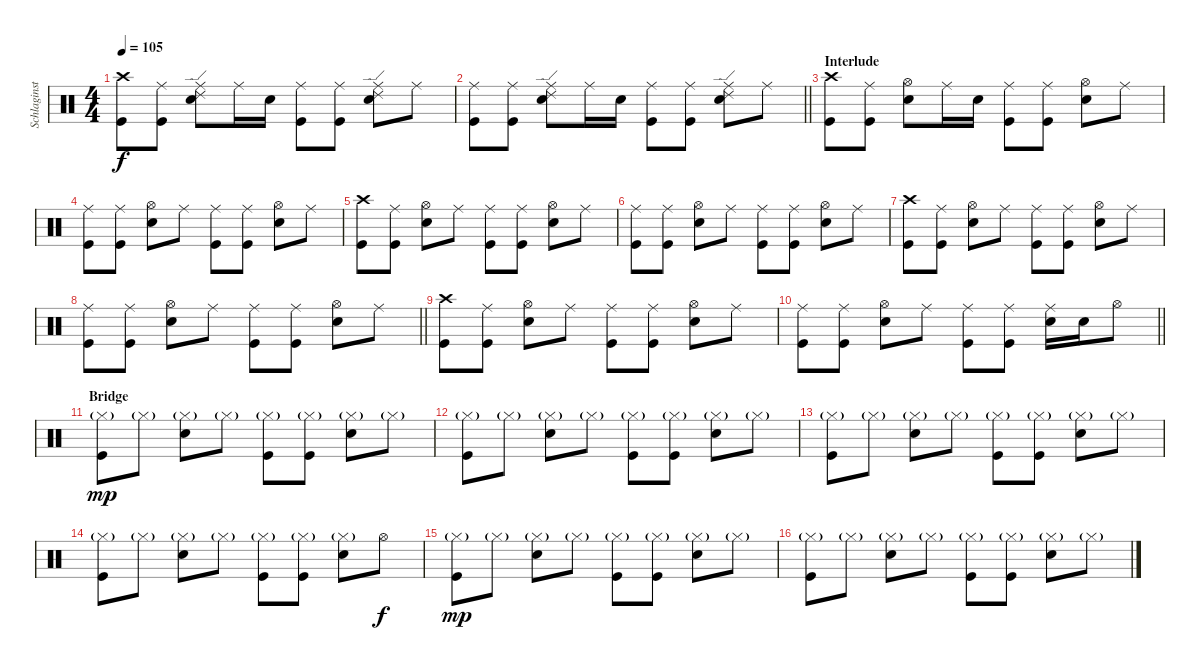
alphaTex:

\track ("Schlaginstrumente - Auswahl" "Schlaginst") {instrument percussion}
\staff {score}
\articulation defaults
\ts (4 4)
\tempo 105
\clef neutral
\ks c
("Crash high (hit)" "Kick (hit)").8{dy f} ("Ride (middle)" "Kick (hit)").8 ("Ride (middle)" "Ride (edge) 2" "Snare (hit) 2").8 "Ride (middle)".16 "Snare (hit) 2".16 ("Ride (middle)" "Kick (hit)").8 ("Ride (middle)" "Kick (hit)").8 ("Ride (middle)" "Ride (edge) 2" "Snare (hit) 2").8 "Ride (middle)".8 |
\barLineRight lightlight
("Ride (middle)" "Kick (hit)").8 ("Ride (middle)" "Kick (hit)").8 ("Ride (middle)" "Ride (edge) 2" "Snare (hit) 2").8 "Ride (middle)".16 "Snare (hit) 2".16 ("Ride (middle)" "Kick (hit)").8 ("Ride (middle)" "Kick (hit)").8 ("Ride (middle)" "Ride (edge) 2" "Snare (hit) 2").8 "Ride (middle)".8 |
\section ("" "Interlude")
("Crash high (hit)" "Kick (hit)").8 ("Ride (middle)" "Kick (hit)").8 ("Hi-Hat (open)" "Snare (hit) 2").8 "Ride (middle)".16 "Snare (hit) 2".16 ("Ride (middle)" "Kick (hit)").8 ("Ride (middle)" "Kick (hit)").8 ("Hi-Hat (open)" "Snare (hit) 2").8 "Ride (middle)".8 |
("Ride (middle)" "Kick (hit)").8 ("Ride (middle)" "Kick (hit)").8 ("Hi-Hat (open)" "Snare (hit) 2").8 "Ride (middle)".8 ("Ride (middle)" "Kick (hit)").8 ("Ride (middle)" "Kick (hit)").8 ("Hi-Hat (open)" "Snare (hit) 2").8 "Ride (middle)".8 |
("Crash high (hit)" "Kick (hit)").8 ("Ride (middle)" "Kick (hit)").8 ("Hi-Hat (open)" "Snare (hit) 2").8 "Ride (middle)".8 ("Ride (middle)" "Kick (hit)").8 ("Ride (middle)" "Kick (hit)").8 ("Hi-Hat (open)" "Snare (hit) 2").8 "Ride (middle)".8 |
("Ride (middle)" "Kick (hit)").8 ("Ride (middle)" "Kick (hit)").8 ("Hi-Hat (open)" "Snare (hit) 2").8 "Ride (middle)".8 ("Ride (middle)" "Kick (hit)").8 ("Ride (middle)" "Kick (hit)").8 ("Hi-Hat (open)" "Snare (hit) 2").8 "Ride (middle)".8 |
("Crash high (hit)" "Kick (hit)").8 ("Ride (middle)" "Kick (hit)").8 ("Hi-Hat (open)" "Snare (hit) 2").8 "Ride (middle)".8 ("Ride (middle)" "Kick (hit)").8 ("Ride (middle)" "Kick (hit)").8 ("Hi-Hat (open)" "Snare (hit) 2").8 "Ride (middle)".8 |
\barLineRight lightlight
("Ride (middle)" "Kick (hit)").8 ("Ride (middle)" "Kick (hit)").8 ("Hi-Hat (open)" "Snare (hit) 2").8 "Ride (middle)".8 ("Ride (middle)" "Kick (hit)").8 ("Ride (middle)" "Kick (hit)").8 ("Hi-Hat (open)" "Snare (hit) 2").8 "Ride (middle)".8 |
("Crash high (hit)" "Kick (hit)").8 ("Ride (middle)" "Kick (hit)").8 ("Hi-Hat (open)" "Snare (hit) 2").8 "Ride (middle)".8 ("Ride (middle)" "Kick (hit)").8 ("Ride (middle)" "Kick (hit)").8 ("Hi-Hat (open)" "Snare (hit) 2").8 "Ride (middle)".8 |
\barLineRight lightlight
("Ride (middle)" "Kick (hit)").8 ("Ride (middle)" "Kick (hit)").8 ("Hi-Hat (open)" "Snare (hit) 2").8 "Ride (middle)".8 ("Ride (middle)" "Kick (hit)").8 ("Ride (middle)" "Kick (hit)").8 ("Ride (middle)" "Snare (hit) 2").16 "Snare (hit) 2".16 "Hi-Hat (open)".8 |
\section ("" "Bridge")
("Hi-Hat (closed)"{g} "Kick (hit)").8{dy mp} "Hi-Hat (closed)"{g}.8 ("Hi-Hat (closed)"{g} "Snare (hit) 2").8 "Hi-Hat (closed)"{g}.8 ("Hi-Hat (closed)"{g} "Kick (hit)").8 ("Hi-Hat (closed)"{g} "Kick (hit)").8 ("Hi-Hat (closed)"{g} "Snare (hit) 2").8 "Hi-Hat (closed)"{g}.8 |
("Hi-Hat (closed)"{g} "Kick (hit)").8 "Hi-Hat (closed)"{g}.8 ("Hi-Hat (closed)"{g} "Snare (hit) 2").8 "Hi-Hat (closed)"{g}.8 ("Hi-Hat (closed)"{g} "Kick (hit)").8 ("Hi-Hat (closed)"{g} "Kick (hit)").8 ("Hi-Hat (closed)"{g} "Snare (hit) 2").8 "Hi-Hat (closed)"{g}.8 |
("Hi-Hat (closed)"{g} "Kick (hit)").8 "Hi-Hat (closed)"{g}.8 ("Hi-Hat (closed)"{g} "Snare (hit) 2").8 "Hi-Hat (closed)"{g}.8 ("Hi-Hat (closed)"{g} "Kick (hit)").8 ("Hi-Hat (closed)"{g} "Kick (hit)").8 ("Hi-Hat (closed)"{g} "Snare (hit) 2").8 "Hi-Hat (closed)"{g}.8 |
("Hi-Hat (closed)"{g} "Kick (hit)").8 "Hi-Hat (closed)"{g}.8 ("Hi-Hat (closed)"{g} "Snare (hit) 2").8 "Hi-Hat (closed)"{g}.8 ("Hi-Hat (closed)"{g} "Kick (hit)").8 ("Hi-Hat (closed)"{g} "Kick (hit)").8 ("Hi-Hat (closed)"{g} "Snare (hit) 2").8 "Hi-Hat (open)".8{dy f} |
("Hi-Hat (closed)"{g} "Kick (hit)").8{dy mp} "Hi-Hat (closed)"{g}.8 ("Hi-Hat (closed)"{g} "Snare (hit) 2").8 "Hi-Hat (closed)"{g}.8 ("Hi-Hat (closed)"{g} "Kick (hit)").8 ("Hi-Hat (closed)"{g} "Kick (hit)").8 ("Hi-Hat (closed)"{g} "Snare (hit) 2").8 "Hi-Hat (closed)"{g}.8 |
("Hi-Hat (closed)"{g} "Kick (hit)").8 "Hi-Hat (closed)"{g}.8 ("Hi-Hat (closed)"{g} "Snare (hit) 2").8 "Hi-Hat (closed)"{g}.8 ("Hi-Hat (closed)"{g} "Kick (hit)").8 ("Hi-Hat (closed)"{g} "Kick (hit)").8 ("Hi-Hat (closed)"{g} "Snare (hit) 2").8 "Hi-Hat (closed)"{g}.8
